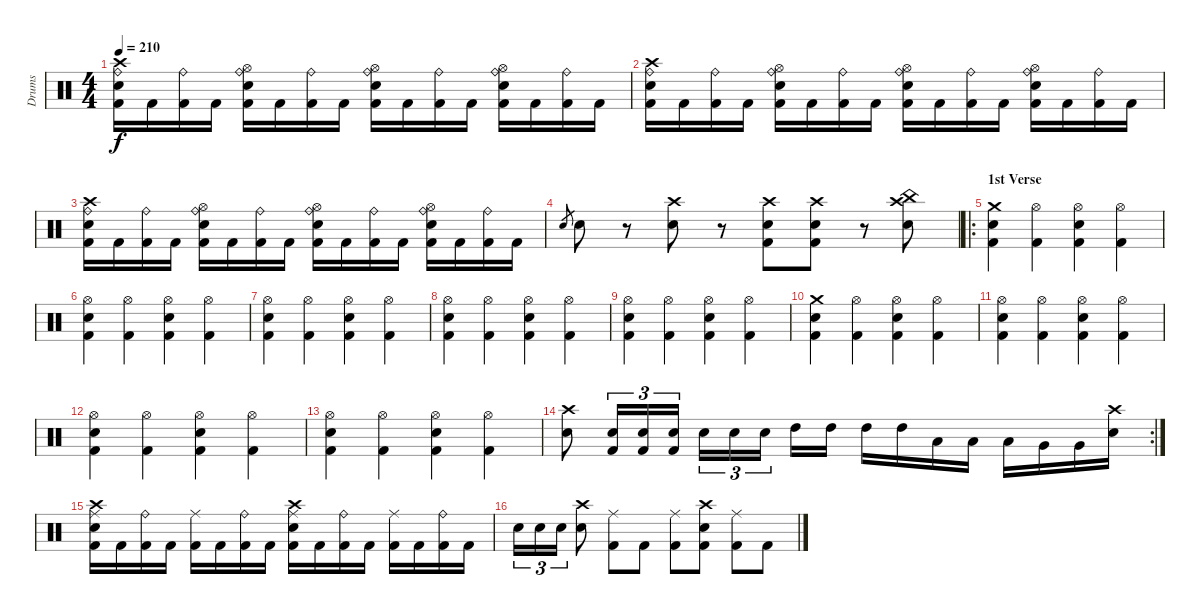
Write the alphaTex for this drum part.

\track ("Drums" "Drums") {instrument percussion}
\staff {score}
\articulation defaults
\ts (4 4)
\tempo 210
\clef neutral
\ks c
("Kick (hit) 2" "Electric Snare (hit)" "Ride (bell)" "Crash high (hit)").16{dy f} "Kick (hit) 2".16 ("Kick (hit) 2" "Ride (bell)").16 "Kick (hit) 2".16 ("Kick (hit) 2" "Electric Snare (hit)" "Ride (bell)" "Hi-Hat (open)").16 "Kick (hit) 2".16 ("Kick (hit) 2" "Ride (bell)").16 "Kick (hit) 2".16 ("Kick (hit) 2" "Electric Snare (hit)" "Ride (bell)" "Hi-Hat (open)").16 "Kick (hit) 2".16 ("Kick (hit) 2" "Ride (bell)").16 "Kick (hit) 2".16 ("Kick (hit) 2" "Electric Snare (hit)" "Ride (bell)" "Hi-Hat (open)").16 "Kick (hit) 2".16 ("Kick (hit) 2" "Ride (bell)").16 "Kick (hit) 2".16 |
("Kick (hit) 2" "Electric Snare (hit)" "Ride (bell)" "Crash high (hit)").16 "Kick (hit) 2".16 ("Kick (hit) 2" "Ride (bell)").16 "Kick (hit) 2".16 ("Kick (hit) 2" "Electric Snare (hit)" "Ride (bell)" "Hi-Hat (open)").16 "Kick (hit) 2".16 ("Kick (hit) 2" "Ride (bell)").16 "Kick (hit) 2".16 ("Kick (hit) 2" "Electric Snare (hit)" "Ride (bell)" "Hi-Hat (open)").16 "Kick (hit) 2".16 ("Kick (hit) 2" "Ride (bell)").16 "Kick (hit) 2".16 ("Kick (hit) 2" "Electric Snare (hit)" "Ride (bell)" "Hi-Hat (open)").16 "Kick (hit) 2".16 ("Kick (hit) 2" "Ride (bell)").16 "Kick (hit) 2".16 |
("Kick (hit) 2" "Electric Snare (hit)" "Ride (bell)" "Crash high (hit)").16 "Kick (hit) 2".16 ("Kick (hit) 2" "Ride (bell)").16 "Kick (hit) 2".16 ("Kick (hit) 2" "Electric Snare (hit)" "Ride (bell)" "Hi-Hat (open)").16 "Kick (hit) 2".16 ("Kick (hit) 2" "Ride (bell)").16 "Kick (hit) 2".16 ("Kick (hit) 2" "Electric Snare (hit)" "Ride (bell)" "Hi-Hat (open)").16 "Kick (hit) 2".16 ("Kick (hit) 2" "Ride (bell)").16 "Kick (hit) 2".16 ("Kick (hit) 2" "Electric Snare (hit)" "Ride (bell)" "Hi-Hat (open)").16 "Kick (hit) 2".16 ("Kick (hit) 2" "Ride (bell)").16 "Kick (hit) 2".16 |
"Electric Snare (hit)".8{gr} "Electric Snare (hit)".8 r.8 ("Crash high (hit)" "Electric Snare (hit)").8 r.8 ("Electric Snare (hit)" "Kick (hit) 2" "Crash high (hit)").8 ("Electric Snare (hit)" "Kick (hit) 2" "Crash high (hit)").8 r.8 ("Crash high (hit)" "Electric Snare (hit)" "China (hit)").8 |
\ro
\section ("" "1st Verse")
("Crash medium (hit)" "Electric Snare (hit)" "Kick (hit) 2").4 ("Hi-Hat (open)" "Kick (hit) 2").4 ("Hi-Hat (open)" "Electric Snare (hit)" "Kick (hit) 2").4 ("Hi-Hat (open)" "Kick (hit) 2").4 |
("Hi-Hat (open)" "Electric Snare (hit)" "Kick (hit) 2").4 ("Hi-Hat (open)" "Kick (hit) 2").4 ("Hi-Hat (open)" "Electric Snare (hit)" "Kick (hit) 2").4 ("Hi-Hat (open)" "Kick (hit) 2").4 |
("Hi-Hat (open)" "Electric Snare (hit)" "Kick (hit) 2").4 ("Hi-Hat (open)" "Kick (hit) 2").4 ("Hi-Hat (open)" "Electric Snare (hit)" "Kick (hit) 2").4 ("Hi-Hat (open)" "Kick (hit) 2").4 |
("Hi-Hat (open)" "Electric Snare (hit)" "Kick (hit) 2").4 ("Hi-Hat (open)" "Kick (hit) 2").4 ("Hi-Hat (open)" "Electric Snare (hit)" "Kick (hit) 2").4 ("Hi-Hat (open)" "Kick (hit) 2").4 |
("Hi-Hat (open)" "Electric Snare (hit)" "Kick (hit) 2").4 ("Hi-Hat (open)" "Kick (hit) 2").4 ("Hi-Hat (open)" "Electric Snare (hit)" "Kick (hit) 2").4 ("Hi-Hat (open)" "Kick (hit) 2").4 |
("Crash medium (hit)" "Electric Snare (hit)" "Kick (hit) 2").4 ("Hi-Hat (open)" "Kick (hit) 2").4 ("Hi-Hat (open)" "Electric Snare (hit)" "Kick (hit) 2").4 ("Hi-Hat (open)" "Kick (hit) 2").4 |
("Hi-Hat (open)" "Electric Snare (hit)" "Kick (hit) 2").4 ("Hi-Hat (open)" "Kick (hit) 2").4 ("Hi-Hat (open)" "Electric Snare (hit)" "Kick (hit) 2").4 ("Hi-Hat (open)" "Kick (hit) 2").4 |
("Hi-Hat (open)" "Electric Snare (hit)" "Kick (hit) 2").4 ("Hi-Hat (open)" "Kick (hit) 2").4 ("Hi-Hat (open)" "Electric Snare (hit)" "Kick (hit) 2").4 ("Hi-Hat (open)" "Kick (hit) 2").4 |
("Hi-Hat (open)" "Electric Snare (hit)" "Kick (hit) 2").4 ("Hi-Hat (open)" "Kick (hit) 2").4 ("Hi-Hat (open)" "Electric Snare (hit)" "Kick (hit) 2").4 ("Hi-Hat (open)" "Kick (hit) 2").4 |
\rc 2
("Crash high (hit)" "Electric Snare (hit)").8 ("Kick (hit) 2" "Electric Snare (hit)").16{tu (3 2)} ("Kick (hit) 2" "Electric Snare (hit)").16{tu (3 2)} ("Kick (hit) 2" "Electric Snare (hit)").16{tu (3 2)} "Electric Snare (hit)".16{tu (3 2)} "Electric Snare (hit)".16{tu (3 2)} "Electric Snare (hit)".16{tu (3 2)} "High Tom (hit)".16 "High Tom (hit)".16 "High Tom (hit)".16 "High Tom (hit)".16 "Low Tom (hit)".16 "Low Tom (hit)".16 "Low Tom (hit)".16 "Very Low Tom (hit)".16 "Very Low Tom (hit)".16 ("Electric Snare (hit)" "Crash high (hit)").16 |
("Kick (hit) 2" "Electric Snare (hit)" "Crash high (hit)" "Ride (middle)").16 "Kick (hit) 2".16 ("Kick (hit) 2" "Ride (bell)").16 "Kick (hit) 2".16 ("Kick (hit) 2" "Ride (middle)").16 "Kick (hit) 2".16 ("Kick (hit) 2" "Ride (bell)").16 "Kick (hit) 2".16 ("Kick (hit) 2" "Electric Snare (hit)" "Crash high (hit)" "Ride (middle)").16 "Kick (hit) 2".16 ("Kick (hit) 2" "Ride (bell)").16 "Kick (hit) 2".16 ("Kick (hit) 2" "Ride (middle)").16 "Kick (hit) 2".16 ("Kick (hit) 2" "Ride (bell)").16 "Kick (hit) 2".16 |
"Electric Snare (hit)".16{tu (3 2)} "Electric Snare (hit)".16{tu (3 2)} "Electric Snare (hit)".16{tu (3 2)} ("Crash high (hit)" "Electric Snare (hit)").8 ("Kick (hit) 2" "Ride (middle)").8 "Kick (hit) 2".8 ("Kick (hit) 2" "Ride (middle)").8 ("Kick (hit) 2" "Crash high (hit)" "Electric Snare (hit)").8 ("Kick (hit) 2" "Ride (middle)").8 "Kick (hit) 2".8
